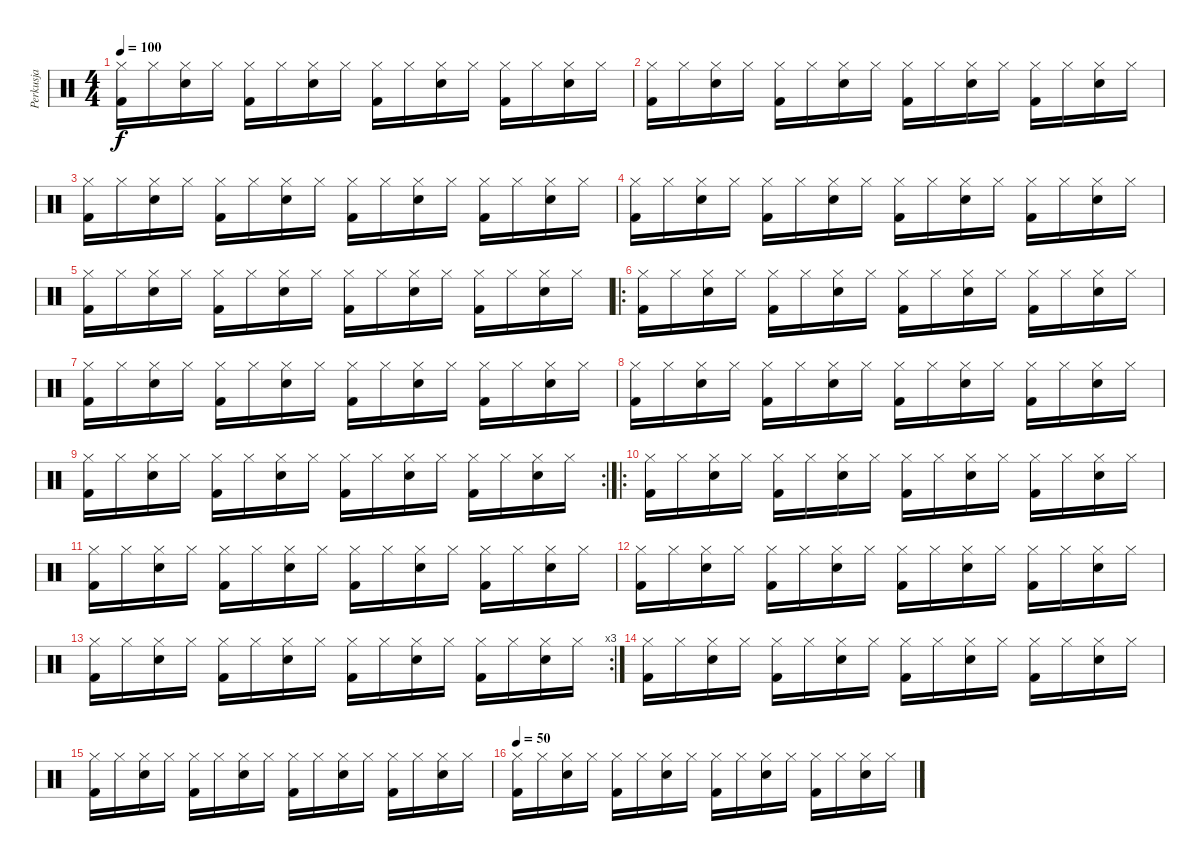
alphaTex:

\track ("Perkusja" "Perkusja") {instrument percussion}
\staff {score}
\articulation defaults
\ts (4 4)
\tempo 100
\clef neutral
\ks c
("Hi-Hat (closed)" "Kick (hit) 2").16{dy f} "Hi-Hat (closed)".16 ("Snare (hit) 2" "Hi-Hat (closed)").16 "Hi-Hat (closed)".16 ("Hi-Hat (closed)" "Kick (hit) 2").16 "Hi-Hat (closed)".16 ("Snare (hit) 2" "Hi-Hat (closed)").16 "Hi-Hat (closed)".16 ("Hi-Hat (closed)" "Kick (hit) 2").16 "Hi-Hat (closed)".16 ("Snare (hit) 2" "Hi-Hat (closed)").16 "Hi-Hat (closed)".16 ("Hi-Hat (closed)" "Kick (hit) 2").16 "Hi-Hat (closed)".16 ("Snare (hit) 2" "Hi-Hat (closed)").16 "Hi-Hat (closed)".16 |
("Hi-Hat (closed)" "Kick (hit) 2").16 "Hi-Hat (closed)".16 ("Snare (hit) 2" "Hi-Hat (closed)").16 "Hi-Hat (closed)".16 ("Hi-Hat (closed)" "Kick (hit) 2").16 "Hi-Hat (closed)".16 ("Snare (hit) 2" "Hi-Hat (closed)").16 "Hi-Hat (closed)".16 ("Hi-Hat (closed)" "Kick (hit) 2").16 "Hi-Hat (closed)".16 ("Snare (hit) 2" "Hi-Hat (closed)").16 "Hi-Hat (closed)".16 ("Hi-Hat (closed)" "Kick (hit) 2").16 "Hi-Hat (closed)".16 ("Snare (hit) 2" "Hi-Hat (closed)").16 "Hi-Hat (closed)".16 |
("Hi-Hat (closed)" "Kick (hit) 2").16 "Hi-Hat (closed)".16 ("Snare (hit) 2" "Hi-Hat (closed)").16 "Hi-Hat (closed)".16 ("Hi-Hat (closed)" "Kick (hit) 2").16 "Hi-Hat (closed)".16 ("Snare (hit) 2" "Hi-Hat (closed)").16 "Hi-Hat (closed)".16 ("Hi-Hat (closed)" "Kick (hit) 2").16 "Hi-Hat (closed)".16 ("Snare (hit) 2" "Hi-Hat (closed)").16 "Hi-Hat (closed)".16 ("Hi-Hat (closed)" "Kick (hit) 2").16 "Hi-Hat (closed)".16 ("Snare (hit) 2" "Hi-Hat (closed)").16 "Hi-Hat (closed)".16 |
("Hi-Hat (closed)" "Kick (hit) 2").16 "Hi-Hat (closed)".16 ("Snare (hit) 2" "Hi-Hat (closed)").16 "Hi-Hat (closed)".16 ("Hi-Hat (closed)" "Kick (hit) 2").16 "Hi-Hat (closed)".16 ("Snare (hit) 2" "Hi-Hat (closed)").16 "Hi-Hat (closed)".16 ("Hi-Hat (closed)" "Kick (hit) 2").16 "Hi-Hat (closed)".16 ("Snare (hit) 2" "Hi-Hat (closed)").16 "Hi-Hat (closed)".16 ("Hi-Hat (closed)" "Kick (hit) 2").16 "Hi-Hat (closed)".16 ("Snare (hit) 2" "Hi-Hat (closed)").16 "Hi-Hat (closed)".16 |
("Hi-Hat (closed)" "Kick (hit) 2").16 "Hi-Hat (closed)".16 ("Snare (hit) 2" "Hi-Hat (closed)").16 "Hi-Hat (closed)".16 ("Hi-Hat (closed)" "Kick (hit) 2").16 "Hi-Hat (closed)".16 ("Snare (hit) 2" "Hi-Hat (closed)").16 "Hi-Hat (closed)".16 ("Hi-Hat (closed)" "Kick (hit) 2").16 "Hi-Hat (closed)".16 ("Snare (hit) 2" "Hi-Hat (closed)").16 "Hi-Hat (closed)".16 ("Hi-Hat (closed)" "Kick (hit) 2").16 "Hi-Hat (closed)".16 ("Snare (hit) 2" "Hi-Hat (closed)").16 "Hi-Hat (closed)".16 |
\ro
("Hi-Hat (closed)" "Kick (hit) 2").16 "Hi-Hat (closed)".16 ("Snare (hit) 2" "Hi-Hat (closed)").16 "Hi-Hat (closed)".16 ("Hi-Hat (closed)" "Kick (hit) 2").16 "Hi-Hat (closed)".16 ("Snare (hit) 2" "Hi-Hat (closed)").16 "Hi-Hat (closed)".16 ("Hi-Hat (closed)" "Kick (hit) 2").16 "Hi-Hat (closed)".16 ("Snare (hit) 2" "Hi-Hat (closed)").16 "Hi-Hat (closed)".16 ("Hi-Hat (closed)" "Kick (hit) 2").16 "Hi-Hat (closed)".16 ("Snare (hit) 2" "Hi-Hat (closed)").16 "Hi-Hat (closed)".16 |
("Hi-Hat (closed)" "Kick (hit) 2").16 "Hi-Hat (closed)".16 ("Snare (hit) 2" "Hi-Hat (closed)").16 "Hi-Hat (closed)".16 ("Hi-Hat (closed)" "Kick (hit) 2").16 "Hi-Hat (closed)".16 ("Snare (hit) 2" "Hi-Hat (closed)").16 "Hi-Hat (closed)".16 ("Hi-Hat (closed)" "Kick (hit) 2").16 "Hi-Hat (closed)".16 ("Snare (hit) 2" "Hi-Hat (closed)").16 "Hi-Hat (closed)".16 ("Hi-Hat (closed)" "Kick (hit) 2").16 "Hi-Hat (closed)".16 ("Snare (hit) 2" "Hi-Hat (closed)").16 "Hi-Hat (closed)".16 |
("Hi-Hat (closed)" "Kick (hit) 2").16 "Hi-Hat (closed)".16 ("Snare (hit) 2" "Hi-Hat (closed)").16 "Hi-Hat (closed)".16 ("Hi-Hat (closed)" "Kick (hit) 2").16 "Hi-Hat (closed)".16 ("Snare (hit) 2" "Hi-Hat (closed)").16 "Hi-Hat (closed)".16 ("Hi-Hat (closed)" "Kick (hit) 2").16 "Hi-Hat (closed)".16 ("Snare (hit) 2" "Hi-Hat (closed)").16 "Hi-Hat (closed)".16 ("Hi-Hat (closed)" "Kick (hit) 2").16 "Hi-Hat (closed)".16 ("Snare (hit) 2" "Hi-Hat (closed)").16 "Hi-Hat (closed)".16 |
\rc 2
("Hi-Hat (closed)" "Kick (hit) 2").16 "Hi-Hat (closed)".16 ("Snare (hit) 2" "Hi-Hat (closed)").16 "Hi-Hat (closed)".16 ("Hi-Hat (closed)" "Kick (hit) 2").16 "Hi-Hat (closed)".16 ("Snare (hit) 2" "Hi-Hat (closed)").16 "Hi-Hat (closed)".16 ("Hi-Hat (closed)" "Kick (hit) 2").16 "Hi-Hat (closed)".16 ("Snare (hit) 2" "Hi-Hat (closed)").16 "Hi-Hat (closed)".16 ("Hi-Hat (closed)" "Kick (hit) 2").16 "Hi-Hat (closed)".16 ("Snare (hit) 2" "Hi-Hat (closed)").16 "Hi-Hat (closed)".16 |
\ro
("Hi-Hat (closed)" "Kick (hit) 2").16 "Hi-Hat (closed)".16 ("Snare (hit) 2" "Hi-Hat (closed)").16 "Hi-Hat (closed)".16 ("Hi-Hat (closed)" "Kick (hit) 2").16 "Hi-Hat (closed)".16 ("Snare (hit) 2" "Hi-Hat (closed)").16 "Hi-Hat (closed)".16 ("Hi-Hat (closed)" "Kick (hit) 2").16 "Hi-Hat (closed)".16 ("Snare (hit) 2" "Hi-Hat (closed)").16 "Hi-Hat (closed)".16 ("Hi-Hat (closed)" "Kick (hit) 2").16 "Hi-Hat (closed)".16 ("Snare (hit) 2" "Hi-Hat (closed)").16 "Hi-Hat (closed)".16 |
("Hi-Hat (closed)" "Kick (hit) 2").16 "Hi-Hat (closed)".16 ("Snare (hit) 2" "Hi-Hat (closed)").16 "Hi-Hat (closed)".16 ("Hi-Hat (closed)" "Kick (hit) 2").16 "Hi-Hat (closed)".16 ("Snare (hit) 2" "Hi-Hat (closed)").16 "Hi-Hat (closed)".16 ("Hi-Hat (closed)" "Kick (hit) 2").16 "Hi-Hat (closed)".16 ("Snare (hit) 2" "Hi-Hat (closed)").16 "Hi-Hat (closed)".16 ("Hi-Hat (closed)" "Kick (hit) 2").16 "Hi-Hat (closed)".16 ("Snare (hit) 2" "Hi-Hat (closed)").16 "Hi-Hat (closed)".16 |
("Hi-Hat (closed)" "Kick (hit) 2").16 "Hi-Hat (closed)".16 ("Snare (hit) 2" "Hi-Hat (closed)").16 "Hi-Hat (closed)".16 ("Hi-Hat (closed)" "Kick (hit) 2").16 "Hi-Hat (closed)".16 ("Snare (hit) 2" "Hi-Hat (closed)").16 "Hi-Hat (closed)".16 ("Hi-Hat (closed)" "Kick (hit) 2").16 "Hi-Hat (closed)".16 ("Snare (hit) 2" "Hi-Hat (closed)").16 "Hi-Hat (closed)".16 ("Hi-Hat (closed)" "Kick (hit) 2").16 "Hi-Hat (closed)".16 ("Snare (hit) 2" "Hi-Hat (closed)").16 "Hi-Hat (closed)".16 |
\rc 3
("Hi-Hat (closed)" "Kick (hit) 2").16 "Hi-Hat (closed)".16 ("Snare (hit) 2" "Hi-Hat (closed)").16 "Hi-Hat (closed)".16 ("Hi-Hat (closed)" "Kick (hit) 2").16 "Hi-Hat (closed)".16 ("Snare (hit) 2" "Hi-Hat (closed)").16 "Hi-Hat (closed)".16 ("Hi-Hat (closed)" "Kick (hit) 2").16 "Hi-Hat (closed)".16 ("Snare (hit) 2" "Hi-Hat (closed)").16 "Hi-Hat (closed)".16 ("Hi-Hat (closed)" "Kick (hit) 2").16 "Hi-Hat (closed)".16 ("Snare (hit) 2" "Hi-Hat (closed)").16 "Hi-Hat (closed)".16 |
("Hi-Hat (closed)" "Kick (hit) 2").16 "Hi-Hat (closed)".16 ("Snare (hit) 2" "Hi-Hat (closed)").16 "Hi-Hat (closed)".16 ("Hi-Hat (closed)" "Kick (hit) 2").16 "Hi-Hat (closed)".16 ("Snare (hit) 2" "Hi-Hat (closed)").16 "Hi-Hat (closed)".16 ("Hi-Hat (closed)" "Kick (hit) 2").16 "Hi-Hat (closed)".16 ("Snare (hit) 2" "Hi-Hat (closed)").16 "Hi-Hat (closed)".16 ("Hi-Hat (closed)" "Kick (hit) 2").16 "Hi-Hat (closed)".16 ("Snare (hit) 2" "Hi-Hat (closed)").16 "Hi-Hat (closed)".16 |
("Hi-Hat (closed)" "Kick (hit) 2").16 "Hi-Hat (closed)".16 ("Snare (hit) 2" "Hi-Hat (closed)").16 "Hi-Hat (closed)".16 ("Hi-Hat (closed)" "Kick (hit) 2").16 "Hi-Hat (closed)".16 ("Snare (hit) 2" "Hi-Hat (closed)").16 "Hi-Hat (closed)".16 ("Hi-Hat (closed)" "Kick (hit) 2").16 "Hi-Hat (closed)".16 ("Snare (hit) 2" "Hi-Hat (closed)").16 "Hi-Hat (closed)".16 ("Hi-Hat (closed)" "Kick (hit) 2").16 "Hi-Hat (closed)".16 ("Snare (hit) 2" "Hi-Hat (closed)").16 "Hi-Hat (closed)".16 |
\tempo 50
("Hi-Hat (closed)" "Kick (hit) 2").16 "Hi-Hat (closed)".16 ("Snare (hit) 2" "Hi-Hat (closed)").16 "Hi-Hat (closed)".16 ("Hi-Hat (closed)" "Kick (hit) 2").16 "Hi-Hat (closed)".16 ("Snare (hit) 2" "Hi-Hat (closed)").16 "Hi-Hat (closed)".16 ("Hi-Hat (closed)" "Kick (hit) 2").16 "Hi-Hat (closed)".16 ("Snare (hit) 2" "Hi-Hat (closed)").16 "Hi-Hat (closed)".16 ("Hi-Hat (closed)" "Kick (hit) 2").16 "Hi-Hat (closed)".16 ("Snare (hit) 2" "Hi-Hat (closed)").16 "Hi-Hat (closed)".16
